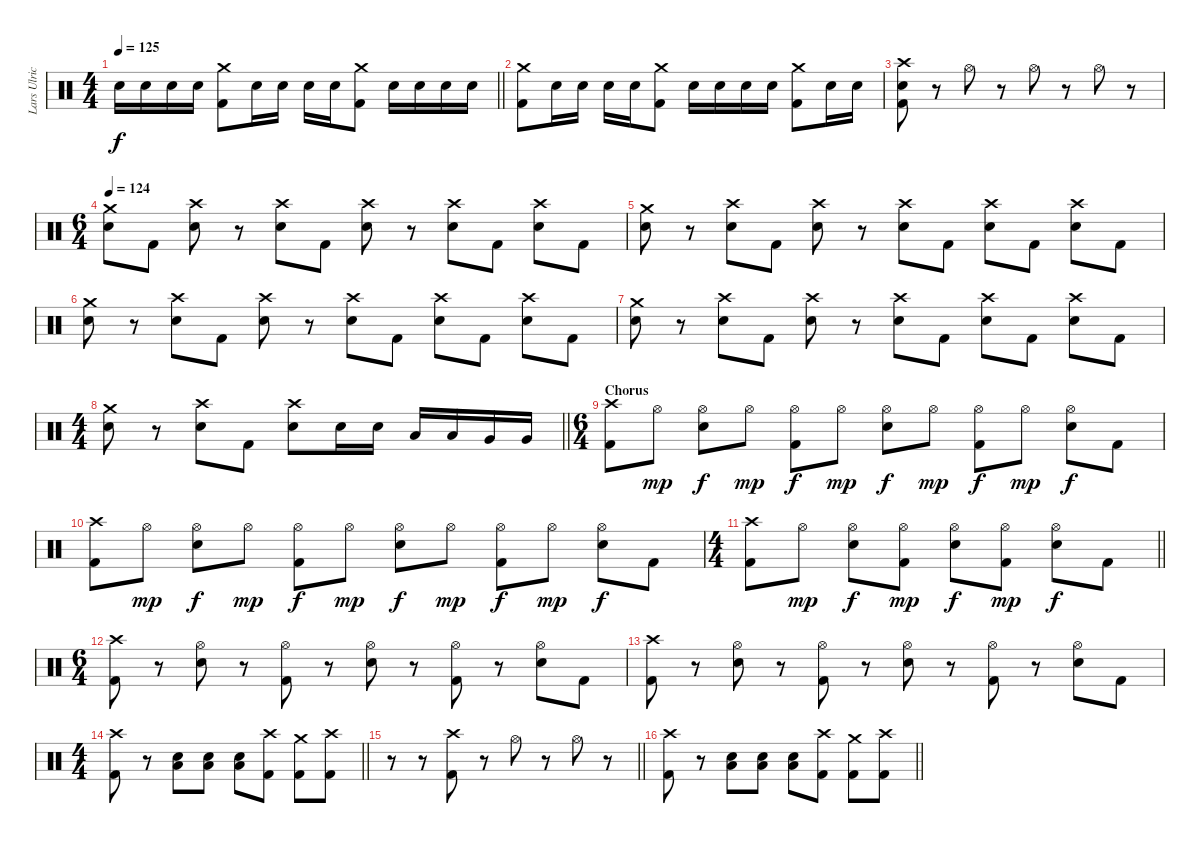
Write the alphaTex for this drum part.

\track ("Lars Ulrich" "Lars Ulric") {instrument percussion}
\staff {score}
\articulation defaults
\ts (4 4)
\tempo 125
\clef neutral
\barLineRight lightlight
\ks c "Snare (hit) 2".16{dy f} "Snare (hit) 2".16 "Snare (hit) 2".16 "Snare (hit) 2".16
("Crash medium (hit)" "Kick (hit) 2").8 "Snare (hit) 2".16 "Snare (hit) 2".16 "Snare (hit) 2".16 "Snare (hit) 2".16 ("Crash medium (hit)" "Kick (hit) 2").8 "Snare (hit) 2".16 "Snare (hit) 2".16 "Snare (hit) 2".16 "Snare (hit) 2".16 |
("Crash medium (hit)" "Kick (hit) 2").8 "Snare (hit) 2".16 "Snare (hit) 2".16 "Snare (hit) 2".16 "Snare (hit) 2".16 ("Crash medium (hit)" "Kick (hit) 2").8 "Snare (hit) 2".16 "Snare (hit) 2".16 "Snare (hit) 2".16 "Snare (hit) 2".16 ("Crash medium (hit)" "Kick (hit) 2").8 "Snare (hit) 2".16 "Snare (hit) 2".16 |
("Crash high (hit)" "Snare (hit) 2" "Kick (hit) 2").8 r.8 "Hi-Hat (open)".8 r.8 "Hi-Hat (open)".8 r.8 "Hi-Hat (open)".8 r.8 |
\ts (6 4)
\tempo 124
("Crash medium (hit)" "Snare (hit) 2").8 "Kick (hit) 2".8 ("Crash high (hit)" "Snare (hit) 2").8 r.8 ("Crash high (hit)" "Snare (hit) 2").8 "Kick (hit) 2".8 ("Crash high (hit)" "Snare (hit) 2").8 r.8 ("Crash high (hit)" "Snare (hit) 2").8 "Kick (hit) 2".8 ("Crash high (hit)" "Snare (hit) 2").8 "Kick (hit) 2".8 |
("Crash medium (hit)" "Snare (hit) 2").8 r.8 ("Crash high (hit)" "Snare (hit) 2").8 "Kick (hit) 2".8 ("Crash high (hit)" "Snare (hit) 2").8 r.8 ("Crash high (hit)" "Snare (hit) 2").8 "Kick (hit) 2".8 ("Crash high (hit)" "Snare (hit) 2").8 "Kick (hit) 2".8 ("Crash high (hit)" "Snare (hit) 2").8 "Kick (hit) 2".8 |
("Crash medium (hit)" "Snare (hit) 2").8 r.8 ("Crash high (hit)" "Snare (hit) 2").8 "Kick (hit) 2".8 ("Crash high (hit)" "Snare (hit) 2").8 r.8 ("Crash high (hit)" "Snare (hit) 2").8 "Kick (hit) 2".8 ("Crash high (hit)" "Snare (hit) 2").8 "Kick (hit) 2".8 ("Crash high (hit)" "Snare (hit) 2").8 "Kick (hit) 2".8 |
("Crash medium (hit)" "Snare (hit) 2").8 r.8 ("Crash high (hit)" "Snare (hit) 2").8 "Kick (hit) 2".8 ("Crash high (hit)" "Snare (hit) 2").8 r.8 ("Crash high (hit)" "Snare (hit) 2").8 "Kick (hit) 2".8 ("Crash high (hit)" "Snare (hit) 2").8 "Kick (hit) 2".8 ("Crash high (hit)" "Snare (hit) 2").8 "Kick (hit) 2".8 |
\ts (4 4)
\barLineRight lightlight
("Crash medium (hit)" "Snare (hit) 2").8 r.8 ("Crash high (hit)" "Snare (hit) 2").8 "Kick (hit) 2".8 ("Crash high (hit)" "Snare (hit) 2").8 "Snare (hit) 2".16 "Snare (hit) 2".16 "Low Tom (hit)".16 "Low Tom (hit)".16 "Very Low Tom (hit)".16 "Very Low Tom (hit)".16 |
\ts (6 4)
\section ("" "Chorus")
("Crash high (hit)" "Kick (hit) 2").8 "Hi-Hat (open)".8{dy mp} ("Hi-Hat (open)" "Snare (hit) 2").8{dy f} "Hi-Hat (open)".8{dy mp} ("Hi-Hat (open)" "Kick (hit) 2").8{dy f} "Hi-Hat (open)".8{dy mp} ("Hi-Hat (open)" "Snare (hit) 2").8{dy f} "Hi-Hat (open)".8{dy mp} ("Hi-Hat (open)" "Kick (hit) 2").8{dy f} "Hi-Hat (open)".8{dy mp} ("Hi-Hat (open)" "Snare (hit) 2").8{dy f} "Kick (hit) 2".8 |
("Crash high (hit)" "Kick (hit) 2").8 "Hi-Hat (open)".8{dy mp} ("Hi-Hat (open)" "Snare (hit) 2").8{dy f} "Hi-Hat (open)".8{dy mp} ("Hi-Hat (open)" "Kick (hit) 2").8{dy f} "Hi-Hat (open)".8{dy mp} ("Hi-Hat (open)" "Snare (hit) 2").8{dy f} "Hi-Hat (open)".8{dy mp} ("Hi-Hat (open)" "Kick (hit) 2").8{dy f} "Hi-Hat (open)".8{dy mp} ("Hi-Hat (open)" "Snare (hit) 2").8{dy f} "Kick (hit) 2".8 |
\ts (4 4)
\barLineRight lightlight
("Crash high (hit)" "Kick (hit) 2").8 "Hi-Hat (open)".8{dy mp} ("Hi-Hat (open)" "Snare (hit) 2").8{dy f} ("Hi-Hat (open)" "Kick (hit) 2").8{dy mp} ("Hi-Hat (open)" "Snare (hit) 2").8{dy f} ("Hi-Hat (open)" "Kick (hit) 2").8{dy mp} ("Hi-Hat (open)" "Snare (hit) 2").8{dy f} "Kick (hit) 2".8 |
\ts (6 4)
("Crash high (hit)" "Kick (hit) 2").8 r.8 ("Hi-Hat (open)" "Snare (hit) 2").8 r.8 ("Hi-Hat (open)" "Kick (hit) 2").8 r.8 ("Hi-Hat (open)" "Snare (hit) 2").8 r.8 ("Hi-Hat (open)" "Kick (hit) 2").8 r.8 ("Hi-Hat (open)" "Snare (hit) 2").8 "Kick (hit) 2".8 |
("Crash high (hit)" "Kick (hit) 2").8 r.8 ("Hi-Hat (open)" "Snare (hit) 2").8 r.8 ("Hi-Hat (open)" "Kick (hit) 2").8 r.8 ("Hi-Hat (open)" "Snare (hit) 2").8 r.8 ("Hi-Hat (open)" "Kick (hit) 2").8 r.8 ("Hi-Hat (open)" "Snare (hit) 2").8 "Kick (hit) 2".8 |
\ts (4 4)
\barLineRight lightlight
("Crash high (hit)" "Kick (hit) 2").8 r.8 ("Low Floor Tom (hit)" "Snare (hit) 2").8 ("Low Floor Tom (hit)" "Snare (hit) 2").8 ("Low Floor Tom (hit)" "Snare (hit) 2").8 ("Crash high (hit)" "Kick (hit) 2").8 ("Crash medium (hit)" "Kick (hit) 2").8 ("Crash high (hit)" "Kick (hit) 2").8 |
\barLineRight lightlight
r.8 r.8 ("Crash high (hit)" "Kick (hit) 2").8 r.8 "Hi-Hat (open)".8 r.8 "Hi-Hat (open)".8 r.8 |
\barLineRight lightlight
("Crash high (hit)" "Kick (hit) 2").8 r.8 ("Low Floor Tom (hit)" "Snare (hit) 2").8 ("Low Floor Tom (hit)" "Snare (hit) 2").8 ("Low Floor Tom (hit)" "Snare (hit) 2").8 ("Crash high (hit)" "Kick (hit) 2").8 ("Crash medium (hit)" "Kick (hit) 2").8 ("Crash high (hit)" "Kick (hit) 2").8
